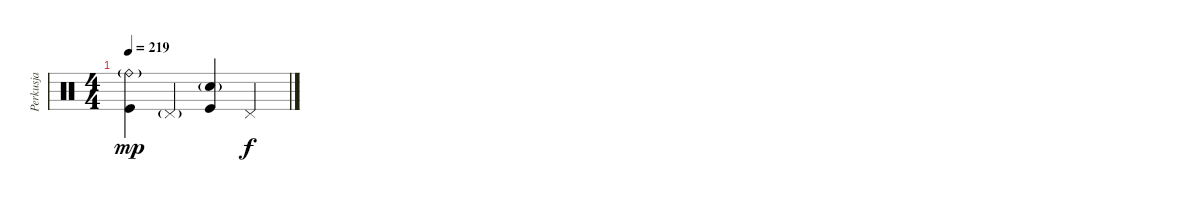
\track ("Perkusja" "Perkusja") {instrument percussion}
\staff {score}
\articulation defaults
\ts (4 4)
\tempo 219
\clef neutral
\ks c
("Ride (bell)"{g} "Kick (hit)").4{dy mp} "Pedal Hi-Hat (hit)"{g}.4 ("Snare (hit) 2"{g} "Kick (hit)").4 "Pedal Hi-Hat (hit)".4{dy f}
